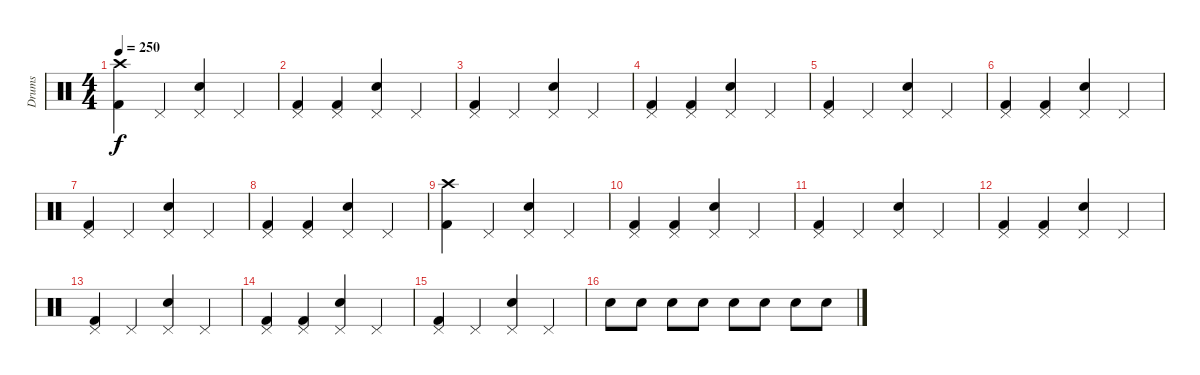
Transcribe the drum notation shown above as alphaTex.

\track ("Drums" "Drums") {instrument percussion}
\staff {score}
\articulation defaults
\ts (4 4)
\tempo 250
\clef neutral
\ks c
("Kick (hit) 2" "Crash high (hit)").4{dy f} "Pedal Hi-Hat (hit)".4 ("Pedal Hi-Hat (hit)" "Electric Snare (hit)").4 "Pedal Hi-Hat (hit)".4 |
("Pedal Hi-Hat (hit)" "Kick (hit) 2").4 ("Pedal Hi-Hat (hit)" "Kick (hit) 2").4 ("Pedal Hi-Hat (hit)" "Electric Snare (hit)").4 "Pedal Hi-Hat (hit)".4 |
("Pedal Hi-Hat (hit)" "Kick (hit) 2").4 "Pedal Hi-Hat (hit)".4 ("Pedal Hi-Hat (hit)" "Electric Snare (hit)").4 "Pedal Hi-Hat (hit)".4 |
("Pedal Hi-Hat (hit)" "Kick (hit) 2").4 ("Pedal Hi-Hat (hit)" "Kick (hit) 2").4 ("Pedal Hi-Hat (hit)" "Electric Snare (hit)").4 "Pedal Hi-Hat (hit)".4 |
("Pedal Hi-Hat (hit)" "Kick (hit) 2").4 "Pedal Hi-Hat (hit)".4 ("Pedal Hi-Hat (hit)" "Electric Snare (hit)").4 "Pedal Hi-Hat (hit)".4 |
("Pedal Hi-Hat (hit)" "Kick (hit) 2").4 ("Pedal Hi-Hat (hit)" "Kick (hit) 2").4 ("Pedal Hi-Hat (hit)" "Electric Snare (hit)").4 "Pedal Hi-Hat (hit)".4 |
("Pedal Hi-Hat (hit)" "Kick (hit) 2").4 "Pedal Hi-Hat (hit)".4 ("Pedal Hi-Hat (hit)" "Electric Snare (hit)").4 "Pedal Hi-Hat (hit)".4 |
("Pedal Hi-Hat (hit)" "Kick (hit) 2").4 ("Pedal Hi-Hat (hit)" "Kick (hit) 2").4 ("Pedal Hi-Hat (hit)" "Electric Snare (hit)").4 "Pedal Hi-Hat (hit)".4 |
("Kick (hit) 2" "Crash high (hit)").4 "Pedal Hi-Hat (hit)".4 ("Pedal Hi-Hat (hit)" "Electric Snare (hit)").4 "Pedal Hi-Hat (hit)".4 |
("Pedal Hi-Hat (hit)" "Kick (hit) 2").4 ("Pedal Hi-Hat (hit)" "Kick (hit) 2").4 ("Pedal Hi-Hat (hit)" "Electric Snare (hit)").4 "Pedal Hi-Hat (hit)".4 |
("Pedal Hi-Hat (hit)" "Kick (hit) 2").4 "Pedal Hi-Hat (hit)".4 ("Pedal Hi-Hat (hit)" "Electric Snare (hit)").4 "Pedal Hi-Hat (hit)".4 |
("Pedal Hi-Hat (hit)" "Kick (hit) 2").4 ("Pedal Hi-Hat (hit)" "Kick (hit) 2").4 ("Pedal Hi-Hat (hit)" "Electric Snare (hit)").4 "Pedal Hi-Hat (hit)".4 |
("Pedal Hi-Hat (hit)" "Kick (hit) 2").4 "Pedal Hi-Hat (hit)".4 ("Pedal Hi-Hat (hit)" "Electric Snare (hit)").4 "Pedal Hi-Hat (hit)".4 |
("Pedal Hi-Hat (hit)" "Kick (hit) 2").4 ("Pedal Hi-Hat (hit)" "Kick (hit) 2").4 ("Pedal Hi-Hat (hit)" "Electric Snare (hit)").4 "Pedal Hi-Hat (hit)".4 |
("Pedal Hi-Hat (hit)" "Kick (hit) 2").4 "Pedal Hi-Hat (hit)".4 ("Pedal Hi-Hat (hit)" "Electric Snare (hit)").4 "Pedal Hi-Hat (hit)".4 |
"Electric Snare (hit)".8 "Electric Snare (hit)".8 "Electric Snare (hit)".8 "Electric Snare (hit)".8 "Electric Snare (hit)".8 "Electric Snare (hit)".8 "Electric Snare (hit)".8 "Electric Snare (hit)".8
